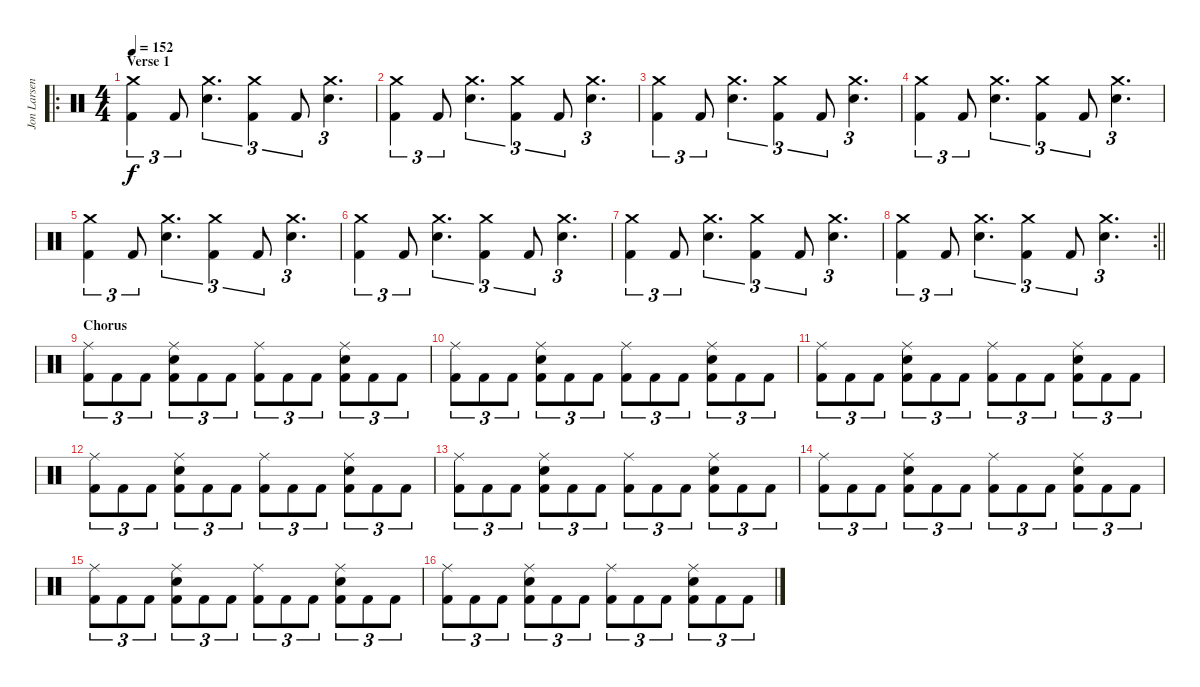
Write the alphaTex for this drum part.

\track ("Jon Larsen" "Jon Larsen") {instrument percussion}
\staff {score}
\articulation defaults
\ro
\ts (4 4)
\section ("" "Verse 1")
\tempo 152
\clef neutral
\ks c
("Kick (hit) 2" "Crash medium (hit)").4{tu (3 2) dy f} "Kick (hit) 2".8{tu (3 2)} ("Electric Snare (hit)" "Crash medium (hit)").4{d tu (3 2)} ("Kick (hit) 2" "Crash medium (hit)").4{tu (3 2)} "Kick (hit) 2".8{tu (3 2)} ("Electric Snare (hit)" "Crash medium (hit)").4{d tu (3 2)} |
("Kick (hit) 2" "Crash medium (hit)").4{tu (3 2)} "Kick (hit) 2".8{tu (3 2)} ("Electric Snare (hit)" "Crash medium (hit)").4{d tu (3 2)} ("Kick (hit) 2" "Crash medium (hit)").4{tu (3 2)} "Kick (hit) 2".8{tu (3 2)} ("Electric Snare (hit)" "Crash medium (hit)").4{d tu (3 2)} |
("Kick (hit) 2" "Crash medium (hit)").4{tu (3 2)} "Kick (hit) 2".8{tu (3 2)} ("Electric Snare (hit)" "Crash medium (hit)").4{d tu (3 2)} ("Kick (hit) 2" "Crash medium (hit)").4{tu (3 2)} "Kick (hit) 2".8{tu (3 2)} ("Electric Snare (hit)" "Crash medium (hit)").4{d tu (3 2)} |
("Kick (hit) 2" "Crash medium (hit)").4{tu (3 2)} "Kick (hit) 2".8{tu (3 2)} ("Electric Snare (hit)" "Crash medium (hit)").4{d tu (3 2)} ("Kick (hit) 2" "Crash medium (hit)").4{tu (3 2)} "Kick (hit) 2".8{tu (3 2)} ("Electric Snare (hit)" "Crash medium (hit)").4{d tu (3 2)} |
("Kick (hit) 2" "Crash medium (hit)").4{tu (3 2)} "Kick (hit) 2".8{tu (3 2)} ("Electric Snare (hit)" "Crash medium (hit)").4{d tu (3 2)} ("Kick (hit) 2" "Crash medium (hit)").4{tu (3 2)} "Kick (hit) 2".8{tu (3 2)} ("Electric Snare (hit)" "Crash medium (hit)").4{d tu (3 2)} |
("Kick (hit) 2" "Crash medium (hit)").4{tu (3 2)} "Kick (hit) 2".8{tu (3 2)} ("Electric Snare (hit)" "Crash medium (hit)").4{d tu (3 2)} ("Kick (hit) 2" "Crash medium (hit)").4{tu (3 2)} "Kick (hit) 2".8{tu (3 2)} ("Electric Snare (hit)" "Crash medium (hit)").4{d tu (3 2)} |
("Kick (hit) 2" "Crash medium (hit)").4{tu (3 2)} "Kick (hit) 2".8{tu (3 2)} ("Electric Snare (hit)" "Crash medium (hit)").4{d tu (3 2)} ("Kick (hit) 2" "Crash medium (hit)").4{tu (3 2)} "Kick (hit) 2".8{tu (3 2)} ("Electric Snare (hit)" "Crash medium (hit)").4{d tu (3 2)} |
\rc 2
\barLineRight lightlight
("Kick (hit) 2" "Crash medium (hit)").4{tu (3 2)} "Kick (hit) 2".8{tu (3 2)} ("Electric Snare (hit)" "Crash medium (hit)").4{d tu (3 2)} ("Kick (hit) 2" "Crash medium (hit)").4{tu (3 2)} "Kick (hit) 2".8{tu (3 2)} ("Electric Snare (hit)" "Crash medium (hit)").4{d tu (3 2)} |
\section ("" "Chorus")
("Kick (hit) 2" "Ride (middle)").8{tu (3 2)} "Kick (hit) 2".8{tu (3 2)} "Kick (hit) 2".8{tu (3 2)} ("Kick (hit) 2" "Electric Snare (hit)" "Ride (middle)").8{tu (3 2)} "Kick (hit) 2".8{tu (3 2)} "Kick (hit) 2".8{tu (3 2)} ("Kick (hit) 2" "Ride (middle)").8{tu (3 2)} "Kick (hit) 2".8{tu (3 2)} "Kick (hit) 2".8{tu (3 2)} ("Kick (hit) 2" "Electric Snare (hit)" "Ride (middle)").8{tu (3 2)} "Kick (hit) 2".8{tu (3 2)} "Kick (hit) 2".8{tu (3 2)} |
("Kick (hit) 2" "Ride (middle)").8{tu (3 2)} "Kick (hit) 2".8{tu (3 2)} "Kick (hit) 2".8{tu (3 2)} ("Kick (hit) 2" "Electric Snare (hit)" "Ride (middle)").8{tu (3 2)} "Kick (hit) 2".8{tu (3 2)} "Kick (hit) 2".8{tu (3 2)} ("Kick (hit) 2" "Ride (middle)").8{tu (3 2)} "Kick (hit) 2".8{tu (3 2)} "Kick (hit) 2".8{tu (3 2)} ("Kick (hit) 2" "Electric Snare (hit)" "Ride (middle)").8{tu (3 2)} "Kick (hit) 2".8{tu (3 2)} "Kick (hit) 2".8{tu (3 2)} |
("Kick (hit) 2" "Ride (middle)").8{tu (3 2)} "Kick (hit) 2".8{tu (3 2)} "Kick (hit) 2".8{tu (3 2)} ("Kick (hit) 2" "Electric Snare (hit)" "Ride (middle)").8{tu (3 2)} "Kick (hit) 2".8{tu (3 2)} "Kick (hit) 2".8{tu (3 2)} ("Kick (hit) 2" "Ride (middle)").8{tu (3 2)} "Kick (hit) 2".8{tu (3 2)} "Kick (hit) 2".8{tu (3 2)} ("Kick (hit) 2" "Electric Snare (hit)" "Ride (middle)").8{tu (3 2)} "Kick (hit) 2".8{tu (3 2)} "Kick (hit) 2".8{tu (3 2)} |
("Kick (hit) 2" "Ride (middle)").8{tu (3 2)} "Kick (hit) 2".8{tu (3 2)} "Kick (hit) 2".8{tu (3 2)} ("Kick (hit) 2" "Electric Snare (hit)" "Ride (middle)").8{tu (3 2)} "Kick (hit) 2".8{tu (3 2)} "Kick (hit) 2".8{tu (3 2)} ("Kick (hit) 2" "Ride (middle)").8{tu (3 2)} "Kick (hit) 2".8{tu (3 2)} "Kick (hit) 2".8{tu (3 2)} ("Kick (hit) 2" "Electric Snare (hit)" "Ride (middle)").8{tu (3 2)} "Kick (hit) 2".8{tu (3 2)} "Kick (hit) 2".8{tu (3 2)} |
("Kick (hit) 2" "Ride (middle)").8{tu (3 2)} "Kick (hit) 2".8{tu (3 2)} "Kick (hit) 2".8{tu (3 2)} ("Kick (hit) 2" "Electric Snare (hit)" "Ride (middle)").8{tu (3 2)} "Kick (hit) 2".8{tu (3 2)} "Kick (hit) 2".8{tu (3 2)} ("Kick (hit) 2" "Ride (middle)").8{tu (3 2)} "Kick (hit) 2".8{tu (3 2)} "Kick (hit) 2".8{tu (3 2)} ("Kick (hit) 2" "Electric Snare (hit)" "Ride (middle)").8{tu (3 2)} "Kick (hit) 2".8{tu (3 2)} "Kick (hit) 2".8{tu (3 2)} |
("Kick (hit) 2" "Ride (middle)").8{tu (3 2)} "Kick (hit) 2".8{tu (3 2)} "Kick (hit) 2".8{tu (3 2)} ("Kick (hit) 2" "Electric Snare (hit)" "Ride (middle)").8{tu (3 2)} "Kick (hit) 2".8{tu (3 2)} "Kick (hit) 2".8{tu (3 2)} ("Kick (hit) 2" "Ride (middle)").8{tu (3 2)} "Kick (hit) 2".8{tu (3 2)} "Kick (hit) 2".8{tu (3 2)} ("Kick (hit) 2" "Electric Snare (hit)" "Ride (middle)").8{tu (3 2)} "Kick (hit) 2".8{tu (3 2)} "Kick (hit) 2".8{tu (3 2)} |
("Kick (hit) 2" "Ride (middle)").8{tu (3 2)} "Kick (hit) 2".8{tu (3 2)} "Kick (hit) 2".8{tu (3 2)} ("Kick (hit) 2" "Electric Snare (hit)" "Ride (middle)").8{tu (3 2)} "Kick (hit) 2".8{tu (3 2)} "Kick (hit) 2".8{tu (3 2)} ("Kick (hit) 2" "Ride (middle)").8{tu (3 2)} "Kick (hit) 2".8{tu (3 2)} "Kick (hit) 2".8{tu (3 2)} ("Kick (hit) 2" "Electric Snare (hit)" "Ride (middle)").8{tu (3 2)} "Kick (hit) 2".8{tu (3 2)} "Kick (hit) 2".8{tu (3 2)} |
("Kick (hit) 2" "Ride (middle)").8{tu (3 2)} "Kick (hit) 2".8{tu (3 2)} "Kick (hit) 2".8{tu (3 2)} ("Kick (hit) 2" "Electric Snare (hit)" "Ride (middle)").8{tu (3 2)} "Kick (hit) 2".8{tu (3 2)} "Kick (hit) 2".8{tu (3 2)} ("Kick (hit) 2" "Ride (middle)").8{tu (3 2)} "Kick (hit) 2".8{tu (3 2)} "Kick (hit) 2".8{tu (3 2)} ("Kick (hit) 2" "Electric Snare (hit)" "Ride (middle)").8{tu (3 2)} "Kick (hit) 2".8{tu (3 2)} "Kick (hit) 2".8{tu (3 2)}
